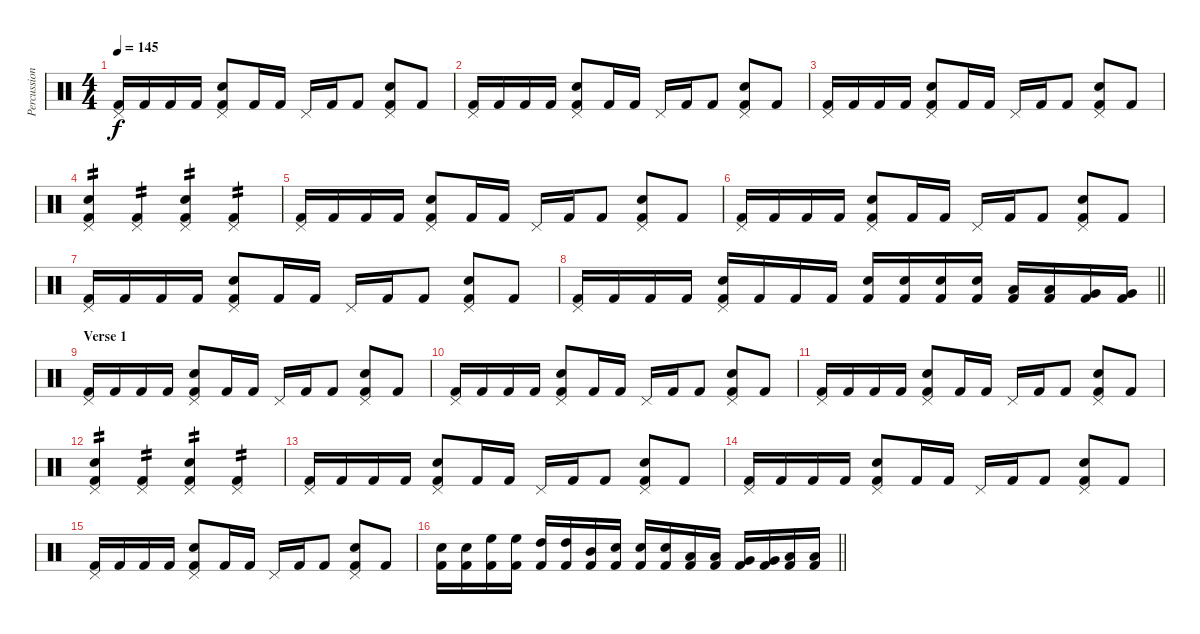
\track ("Percussion" "Percussion") {instrument percussion}
\staff {score}
\articulation defaults
\ts (4 4)
\tempo 145
\clef neutral
\ks c
("Pedal Hi-Hat (hit)" "Kick (hit) 2").16{dy f} "Kick (hit) 2".16 "Kick (hit) 2".16 "Kick (hit) 2".16 ("Electric Snare (hit)" "Pedal Hi-Hat (hit)" "Kick (hit) 2").8 "Kick (hit) 2".16 "Kick (hit) 2".16 "Pedal Hi-Hat (hit)".16 "Kick (hit) 2".16 "Kick (hit) 2".8 ("Electric Snare (hit)" "Pedal Hi-Hat (hit)" "Kick (hit) 2").8 "Kick (hit) 2".8 |
("Pedal Hi-Hat (hit)" "Kick (hit) 2").16 "Kick (hit) 2".16 "Kick (hit) 2".16 "Kick (hit) 2".16 ("Electric Snare (hit)" "Pedal Hi-Hat (hit)" "Kick (hit) 2").8 "Kick (hit) 2".16 "Kick (hit) 2".16 "Pedal Hi-Hat (hit)".16 "Kick (hit) 2".16 "Kick (hit) 2".8 ("Electric Snare (hit)" "Pedal Hi-Hat (hit)" "Kick (hit) 2").8 "Kick (hit) 2".8 |
("Pedal Hi-Hat (hit)" "Kick (hit) 2").16 "Kick (hit) 2".16 "Kick (hit) 2".16 "Kick (hit) 2".16 ("Electric Snare (hit)" "Pedal Hi-Hat (hit)" "Kick (hit) 2").8 "Kick (hit) 2".16 "Kick (hit) 2".16 "Pedal Hi-Hat (hit)".16 "Kick (hit) 2".16 "Kick (hit) 2".8 ("Electric Snare (hit)" "Pedal Hi-Hat (hit)" "Kick (hit) 2").8 "Kick (hit) 2".8 |
("Electric Snare (hit)" "Pedal Hi-Hat (hit)" "Kick (hit) 2").4{tp 2} ("Pedal Hi-Hat (hit)" "Kick (hit) 2").4{tp 2} ("Electric Snare (hit)" "Pedal Hi-Hat (hit)" "Kick (hit) 2").4{tp 2} ("Pedal Hi-Hat (hit)" "Kick (hit) 2").4{tp 2} |
("Pedal Hi-Hat (hit)" "Kick (hit) 2").16 "Kick (hit) 2".16 "Kick (hit) 2".16 "Kick (hit) 2".16 ("Electric Snare (hit)" "Pedal Hi-Hat (hit)" "Kick (hit) 2").8 "Kick (hit) 2".16 "Kick (hit) 2".16 "Pedal Hi-Hat (hit)".16 "Kick (hit) 2".16 "Kick (hit) 2".8 ("Electric Snare (hit)" "Pedal Hi-Hat (hit)" "Kick (hit) 2").8 "Kick (hit) 2".8 |
("Pedal Hi-Hat (hit)" "Kick (hit) 2").16 "Kick (hit) 2".16 "Kick (hit) 2".16 "Kick (hit) 2".16 ("Electric Snare (hit)" "Pedal Hi-Hat (hit)" "Kick (hit) 2").8 "Kick (hit) 2".16 "Kick (hit) 2".16 "Pedal Hi-Hat (hit)".16 "Kick (hit) 2".16 "Kick (hit) 2".8 ("Electric Snare (hit)" "Pedal Hi-Hat (hit)" "Kick (hit) 2").8 "Kick (hit) 2".8 |
("Pedal Hi-Hat (hit)" "Kick (hit) 2").16 "Kick (hit) 2".16 "Kick (hit) 2".16 "Kick (hit) 2".16 ("Electric Snare (hit)" "Pedal Hi-Hat (hit)" "Kick (hit) 2").8 "Kick (hit) 2".16 "Kick (hit) 2".16 "Pedal Hi-Hat (hit)".16 "Kick (hit) 2".16 "Kick (hit) 2".8 ("Electric Snare (hit)" "Pedal Hi-Hat (hit)" "Kick (hit) 2").8 "Kick (hit) 2".8 |
\barLineRight lightlight
("Pedal Hi-Hat (hit)" "Kick (hit) 2").16 "Kick (hit) 2".16 "Kick (hit) 2".16 "Kick (hit) 2".16 ("Electric Snare (hit)" "Pedal Hi-Hat (hit)" "Kick (hit) 2").16 "Kick (hit) 2".16 "Kick (hit) 2".16 "Kick (hit) 2".16 ("Electric Snare (hit)" "Kick (hit) 2").16 ("Electric Snare (hit)" "Kick (hit) 2").16 ("Electric Snare (hit)" "Kick (hit) 2").16 ("Electric Snare (hit)" "Kick (hit) 2").16 ("Low Tom (hit)" "Kick (hit) 2").16 ("Low Tom (hit)" "Kick (hit) 2").16 ("Very Low Tom (hit)" "Kick (hit) 2").16 ("Very Low Tom (hit)" "Kick (hit) 2").16 |
\section ("" "Verse 1")
("Pedal Hi-Hat (hit)" "Kick (hit) 2").16 "Kick (hit) 2".16 "Kick (hit) 2".16 "Kick (hit) 2".16 ("Electric Snare (hit)" "Pedal Hi-Hat (hit)" "Kick (hit) 2").8 "Kick (hit) 2".16 "Kick (hit) 2".16 "Pedal Hi-Hat (hit)".16 "Kick (hit) 2".16 "Kick (hit) 2".8 ("Electric Snare (hit)" "Pedal Hi-Hat (hit)" "Kick (hit) 2").8 "Kick (hit) 2".8 |
("Pedal Hi-Hat (hit)" "Kick (hit) 2").16 "Kick (hit) 2".16 "Kick (hit) 2".16 "Kick (hit) 2".16 ("Electric Snare (hit)" "Pedal Hi-Hat (hit)" "Kick (hit) 2").8 "Kick (hit) 2".16 "Kick (hit) 2".16 "Pedal Hi-Hat (hit)".16 "Kick (hit) 2".16 "Kick (hit) 2".8 ("Electric Snare (hit)" "Pedal Hi-Hat (hit)" "Kick (hit) 2").8 "Kick (hit) 2".8 |
("Pedal Hi-Hat (hit)" "Kick (hit) 2").16 "Kick (hit) 2".16 "Kick (hit) 2".16 "Kick (hit) 2".16 ("Electric Snare (hit)" "Pedal Hi-Hat (hit)" "Kick (hit) 2").8 "Kick (hit) 2".16 "Kick (hit) 2".16 "Pedal Hi-Hat (hit)".16 "Kick (hit) 2".16 "Kick (hit) 2".8 ("Electric Snare (hit)" "Pedal Hi-Hat (hit)" "Kick (hit) 2").8 "Kick (hit) 2".8 |
("Electric Snare (hit)" "Pedal Hi-Hat (hit)" "Kick (hit) 2").4{tp 2} ("Pedal Hi-Hat (hit)" "Kick (hit) 2").4{tp 2} ("Electric Snare (hit)" "Pedal Hi-Hat (hit)" "Kick (hit) 2").4{tp 2} ("Pedal Hi-Hat (hit)" "Kick (hit) 2").4{tp 2} |
("Pedal Hi-Hat (hit)" "Kick (hit) 2").16 "Kick (hit) 2".16 "Kick (hit) 2".16 "Kick (hit) 2".16 ("Electric Snare (hit)" "Pedal Hi-Hat (hit)" "Kick (hit) 2").8 "Kick (hit) 2".16 "Kick (hit) 2".16 "Pedal Hi-Hat (hit)".16 "Kick (hit) 2".16 "Kick (hit) 2".8 ("Electric Snare (hit)" "Pedal Hi-Hat (hit)" "Kick (hit) 2").8 "Kick (hit) 2".8 |
("Pedal Hi-Hat (hit)" "Kick (hit) 2").16 "Kick (hit) 2".16 "Kick (hit) 2".16 "Kick (hit) 2".16 ("Electric Snare (hit)" "Pedal Hi-Hat (hit)" "Kick (hit) 2").8 "Kick (hit) 2".16 "Kick (hit) 2".16 "Pedal Hi-Hat (hit)".16 "Kick (hit) 2".16 "Kick (hit) 2".8 ("Electric Snare (hit)" "Pedal Hi-Hat (hit)" "Kick (hit) 2").8 "Kick (hit) 2".8 |
("Pedal Hi-Hat (hit)" "Kick (hit) 2").16 "Kick (hit) 2".16 "Kick (hit) 2".16 "Kick (hit) 2".16 ("Electric Snare (hit)" "Pedal Hi-Hat (hit)" "Kick (hit) 2").8 "Kick (hit) 2".16 "Kick (hit) 2".16 "Pedal Hi-Hat (hit)".16 "Kick (hit) 2".16 "Kick (hit) 2".8 ("Electric Snare (hit)" "Pedal Hi-Hat (hit)" "Kick (hit) 2").8 "Kick (hit) 2".8 |
\barLineRight lightlight
("Electric Snare (hit)" "Kick (hit) 2").16 ("Electric Snare (hit)" "Kick (hit) 2").16 ("High Floor Tom (hit)" "Kick (hit) 2").16 ("High Floor Tom (hit)" "Kick (hit) 2").16 ("High Tom (hit)" "Kick (hit) 2").16 ("High Tom (hit)" "Kick (hit) 2").16 ("Mid Tom (hit)" "Kick (hit) 2").16 ("Electric Snare (hit)" "Kick (hit) 2").16 ("Electric Snare (hit)" "Kick (hit) 2").16 ("Electric Snare (hit)" "Kick (hit) 2").16 ("Low Tom (hit)" "Kick (hit) 2").16 ("Low Tom (hit)" "Kick (hit) 2").16 ("Very Low Tom (hit)" "Kick (hit) 2").16 ("Very Low Tom (hit)" "Kick (hit) 2").16 ("Low Floor Tom (hit)" "Kick (hit) 2").16 ("Low Floor Tom (hit)" "Kick (hit) 2").16
